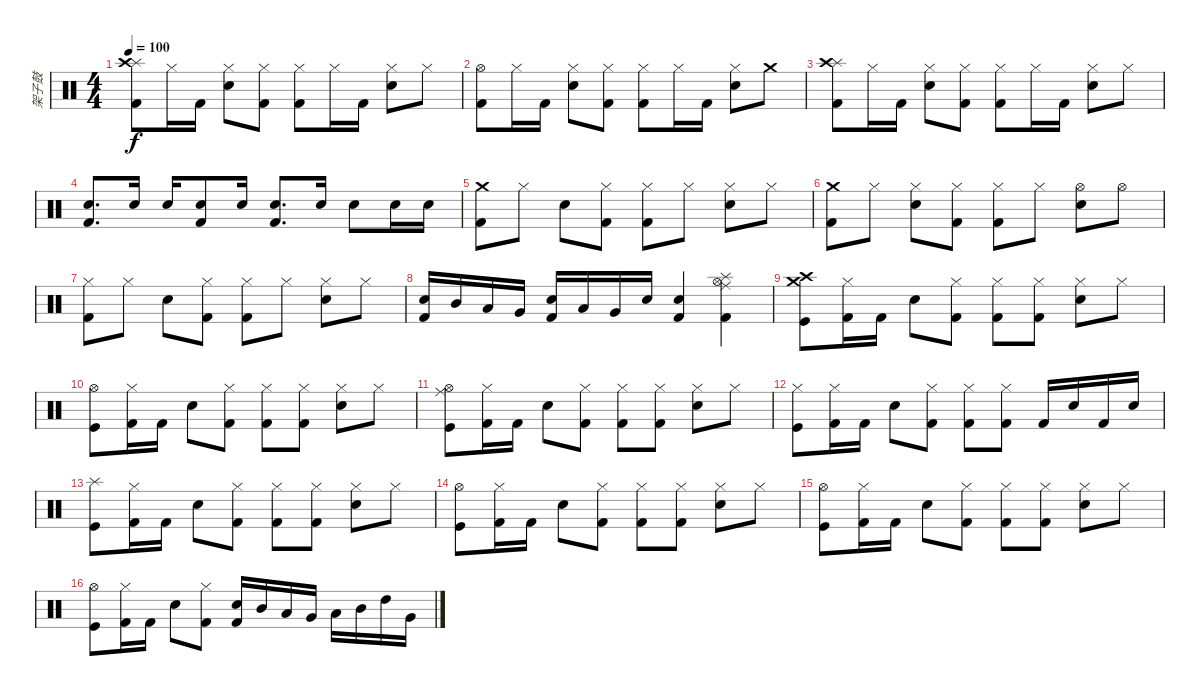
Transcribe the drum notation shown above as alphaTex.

\track ("架子鼓" "架子鼓") {instrument percussion}
\staff {score}
\articulation defaults
\ts (4 4)
\tempo 100
\clef neutral
\ks c
("Splash (hit)" "Crash high (hit)" "Kick (hit) 2").8{dy f} "Hi-Hat (closed)".16 "Kick (hit) 2".16 ("Hi-Hat (closed)" "Electric Snare (hit)").8 ("Hi-Hat (closed)" "Kick (hit) 2").8 ("Hi-Hat (closed)" "Kick (hit) 2").8 "Hi-Hat (closed)".16 "Kick (hit) 2".16 ("Hi-Hat (closed)" "Electric Snare (hit)").8 "Hi-Hat (closed)".8 |
("Hi-Hat (open)" "Kick (hit) 2").8 "Hi-Hat (closed)".16 "Kick (hit) 2".16 ("Hi-Hat (closed)" "Electric Snare (hit)").8 ("Hi-Hat (closed)" "Kick (hit) 2").8 ("Hi-Hat (closed)" "Kick (hit) 2").8 "Hi-Hat (closed)".16 "Kick (hit) 2".16 ("Hi-Hat (closed)" "Electric Snare (hit)").8 "Crash medium (hit)".8 |
("Splash (hit)" "Crash high (hit)" "Kick (hit) 2").8 "Hi-Hat (closed)".16 "Kick (hit) 2".16 ("Hi-Hat (closed)" "Electric Snare (hit)").8 ("Hi-Hat (closed)" "Kick (hit) 2").8 ("Hi-Hat (closed)" "Kick (hit) 2").8 "Hi-Hat (closed)".16 "Kick (hit) 2".16 ("Hi-Hat (closed)" "Electric Snare (hit)").8 "Hi-Hat (closed)".8 |
("Electric Snare (hit)" "Kick (hit) 2").8{d} "Electric Snare (hit)".16 "Electric Snare (hit)".16 ("Electric Snare (hit)" "Kick (hit) 2").8 "Electric Snare (hit)".16 ("Electric Snare (hit)" "Kick (hit) 2").8{d} "Electric Snare (hit)".16 "Electric Snare (hit)".8 "Electric Snare (hit)".16 "Electric Snare (hit)".16 |
("Crash medium (hit)" "Kick (hit) 2").8 "Hi-Hat (closed)".8 "Electric Snare (hit)".8 ("Hi-Hat (closed)" "Kick (hit) 2").8 ("Hi-Hat (closed)" "Kick (hit) 2").8 "Hi-Hat (closed)".8 ("Hi-Hat (closed)" "Electric Snare (hit)").8 "Hi-Hat (closed)".8 |
("Crash medium (hit)" "Kick (hit) 2").8 "Hi-Hat (closed)".8 ("Hi-Hat (closed)" "Electric Snare (hit)").8 ("Hi-Hat (closed)" "Kick (hit) 2").8 ("Hi-Hat (closed)" "Kick (hit) 2").8 "Hi-Hat (closed)".8 ("Hi-Hat (open)" "Electric Snare (hit)").8 "Hi-Hat (open)".8 |
("Hi-Hat (closed)" "Kick (hit) 2").8 "Hi-Hat (closed)".8 "Electric Snare (hit)".8 ("Hi-Hat (closed)" "Kick (hit) 2").8 ("Hi-Hat (closed)" "Kick (hit) 2").8 "Hi-Hat (closed)".8 ("Hi-Hat (closed)" "Electric Snare (hit)").8 "Hi-Hat (closed)".8 |
("Electric Snare (hit)" "Kick (hit) 2").16 "Mid Tom (hit)".16 "Low Tom (hit)".16 "Very Low Tom (hit)".16 ("Electric Snare (hit)" "Kick (hit) 2").16 "Low Tom (hit)".16 "Very Low Tom (hit)".16 "Electric Snare (hit)".16 ("Electric Snare (hit)" "Kick (hit) 2").4 ("Splash (hit)" "Ride (middle)" "Hi-Hat (open)" "Kick (hit) 2").4 |
("Crash medium (hit)" "Crash high (hit)" "Kick (hit)").8 ("Hi-Hat (closed)" "Kick (hit) 2").16 "Kick (hit) 2".16 "Electric Snare (hit)".8 ("Hi-Hat (closed)" "Kick (hit) 2").8 ("Hi-Hat (closed)" "Kick (hit) 2").8 ("Hi-Hat (closed)" "Kick (hit) 2").8 ("Hi-Hat (closed)" "Electric Snare (hit)").8 "Hi-Hat (closed)".8 |
("Hi-Hat (open)" "Kick (hit)").8 ("Hi-Hat (closed)" "Kick (hit) 2").16 "Kick (hit) 2".16 "Electric Snare (hit)".8 ("Hi-Hat (closed)" "Kick (hit) 2").8 ("Hi-Hat (closed)" "Kick (hit) 2").8 ("Hi-Hat (closed)" "Kick (hit) 2").8 ("Hi-Hat (closed)" "Electric Snare (hit)").8 "Hi-Hat (closed)".8 |
("Ride (middle)" "Hi-Hat (open)" "Kick (hit)").8 ("Hi-Hat (closed)" "Kick (hit) 2").16 "Kick (hit) 2".16 "Electric Snare (hit)".8 ("Hi-Hat (closed)" "Kick (hit) 2").8 ("Hi-Hat (closed)" "Kick (hit) 2").8 ("Hi-Hat (closed)" "Kick (hit) 2").8 ("Hi-Hat (closed)" "Electric Snare (hit)").8 "Hi-Hat (closed)".8 |
("Hi-Hat (closed)" "Kick (hit)").8 ("Hi-Hat (closed)" "Kick (hit) 2").16 "Kick (hit) 2".16 "Electric Snare (hit)".8 ("Hi-Hat (closed)" "Kick (hit) 2").8 ("Hi-Hat (closed)" "Kick (hit) 2").8 ("Hi-Hat (closed)" "Kick (hit) 2").8 "Kick (hit) 2".16 "Electric Snare (hit)".16 "Kick (hit) 2".16 "Electric Snare (hit)".16 |
("Splash (hit)" "Kick (hit)").8 ("Hi-Hat (closed)" "Kick (hit) 2").16 "Kick (hit) 2".16 "Electric Snare (hit)".8 ("Hi-Hat (closed)" "Kick (hit) 2").8 ("Hi-Hat (closed)" "Kick (hit) 2").8 ("Hi-Hat (closed)" "Kick (hit) 2").8 ("Hi-Hat (closed)" "Electric Snare (hit)").8 "Hi-Hat (closed)".8 |
("Hi-Hat (open)" "Kick (hit)").8 ("Hi-Hat (closed)" "Kick (hit) 2").16 "Kick (hit) 2".16 "Electric Snare (hit)".8 ("Hi-Hat (closed)" "Kick (hit) 2").8 ("Hi-Hat (closed)" "Kick (hit) 2").8 ("Hi-Hat (closed)" "Kick (hit) 2").8 ("Hi-Hat (closed)" "Electric Snare (hit)").8 "Hi-Hat (closed)".8 |
("Hi-Hat (open)" "Kick (hit)").8 ("Hi-Hat (closed)" "Kick (hit) 2").16 "Kick (hit) 2".16 "Electric Snare (hit)".8 ("Hi-Hat (closed)" "Kick (hit) 2").8 ("Hi-Hat (closed)" "Kick (hit) 2").8 ("Hi-Hat (closed)" "Kick (hit) 2").8 ("Hi-Hat (closed)" "Electric Snare (hit)").8 "Hi-Hat (closed)".8 |
("Hi-Hat (open)" "Kick (hit)").8 ("Hi-Hat (closed)" "Kick (hit) 2").16 "Kick (hit) 2".16 "Electric Snare (hit)".8 ("Hi-Hat (closed)" "Kick (hit) 2").8 ("Electric Snare (hit)" "Kick (hit) 2").16 "Mid Tom (hit)".16 "Low Tom (hit)".16 "Very Low Tom (hit)".16 "Low Tom (hit)".16 "Mid Tom (hit)".16 "High Tom (hit)".16 "Very Low Tom (hit)".16
